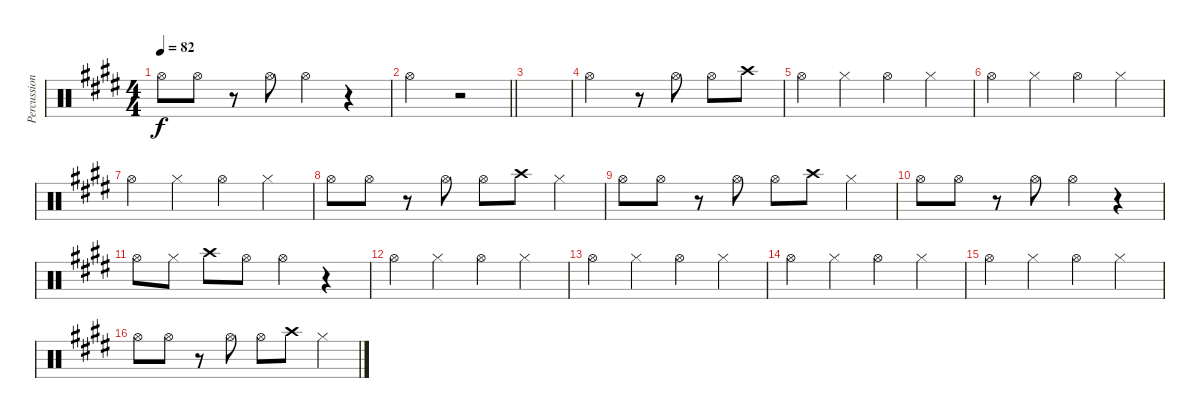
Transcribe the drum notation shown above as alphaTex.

\track ("Percussion" "Percussion") {instrument percussion}
\staff {score}
\articulation defaults
\ts (4 4)
\tempo 82
\clef neutral
\ks e "Hi-Hat (open)".8{dy f} "Hi-Hat (open)".8
r.8 "Hi-Hat (open)".8 "Hi-Hat (open)".4 r.4 |
\barLineRight lightlight "Hi-Hat (open)".2
r.2 |
|
"Hi-Hat (open)".2 r.8 "Hi-Hat (open)".8 "Hi-Hat (open)".8 "Crash high (hit)".8 |
"Hi-Hat (open)".4 "Hi-Hat (closed)".4 "Hi-Hat (open)".4 "Hi-Hat (closed)".4 |
"Hi-Hat (open)".4 "Hi-Hat (closed)".4 "Hi-Hat (open)".4 "Hi-Hat (closed)".4 |
"Hi-Hat (open)".4 "Hi-Hat (closed)".4 "Hi-Hat (open)".4 "Hi-Hat (closed)".4 |
"Hi-Hat (open)".8 "Hi-Hat (open)".8 r.8 "Hi-Hat (open)".8 "Hi-Hat (open)".8 "Crash high (hit)".8 "Hi-Hat (closed)".4 |
"Hi-Hat (open)".8 "Hi-Hat (open)".8 r.8 "Hi-Hat (open)".8 "Hi-Hat (open)".8 "Crash high (hit)".8 "Hi-Hat (closed)".4 |
"Hi-Hat (open)".8 "Hi-Hat (open)".8 r.8 "Hi-Hat (open)".8 "Hi-Hat (open)".4 r.4 |
"Hi-Hat (open)".8 "Hi-Hat (closed)".8 "Crash high (hit)".8 "Hi-Hat (open)".8 "Hi-Hat (open)".4 r.4 |
"Hi-Hat (open)".4 "Hi-Hat (closed)".4 "Hi-Hat (open)".4 "Hi-Hat (closed)".4 |
"Hi-Hat (open)".4 "Hi-Hat (closed)".4 "Hi-Hat (open)".4 "Hi-Hat (closed)".4 |
"Hi-Hat (open)".4 "Hi-Hat (closed)".4 "Hi-Hat (open)".4 "Hi-Hat (closed)".4 |
"Hi-Hat (open)".4 "Hi-Hat (closed)".4 "Hi-Hat (open)".4 "Hi-Hat (closed)".4 |
"Hi-Hat (open)".8 "Hi-Hat (open)".8 r.8 "Hi-Hat (open)".8 "Hi-Hat (open)".8 "Crash high (hit)".8 "Hi-Hat (closed)".4
